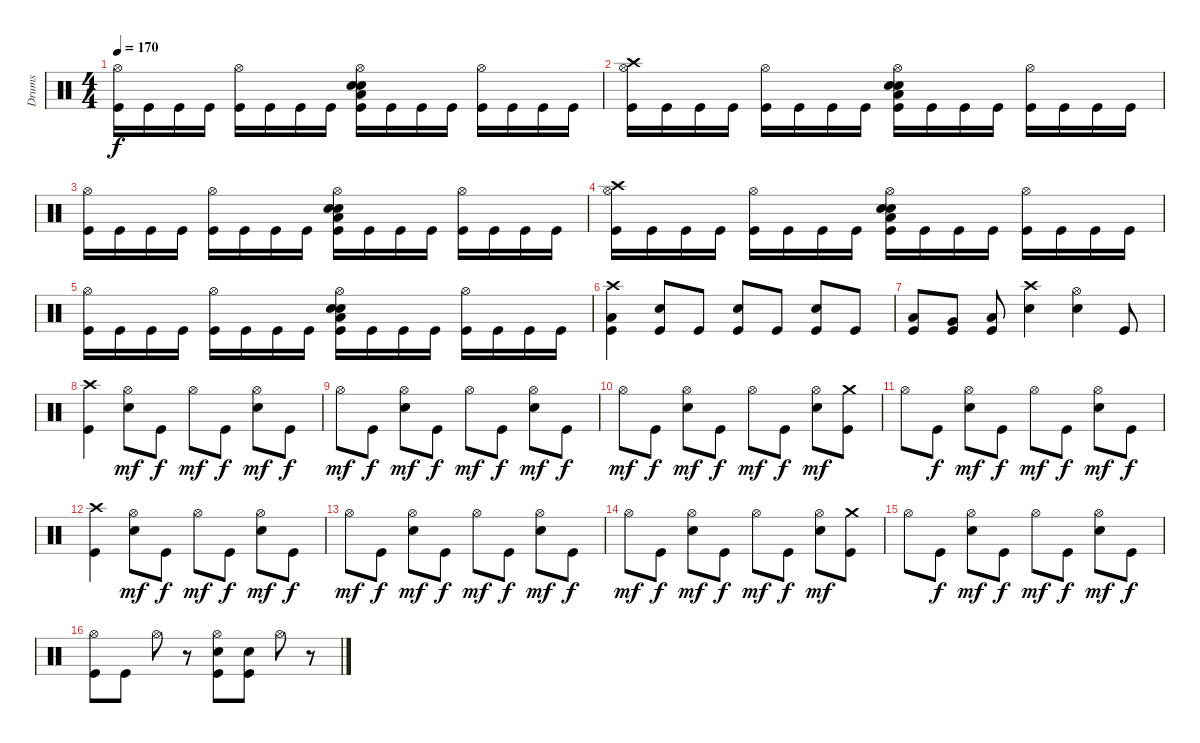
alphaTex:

\track ("Drums" "Drums") {instrument percussion}
\staff {score}
\articulation defaults
\ts (4 4)
\tempo 170
\clef neutral
\ks c
("Hi-Hat (open)" "Kick (hit)").16{dy f} "Kick (hit)".16 "Kick (hit)".16 "Kick (hit)".16 ("Hi-Hat (open)" "Kick (hit)").16 "Kick (hit)".16 "Kick (hit)".16 "Kick (hit)".16 ("Low Floor Tom (hit)" "Hi-Hat (open)" "Electric Snare (hit)" "Electric Snare (hit)" "Kick (hit)").16 "Kick (hit)".16 "Kick (hit)".16 "Kick (hit)".16 ("Hi-Hat (open)" "Kick (hit)").16 "Kick (hit)".16 "Kick (hit)".16 "Kick (hit)".16 |
("Crash high (hit)" "Hi-Hat (open)" "Kick (hit)").16 "Kick (hit)".16 "Kick (hit)".16 "Kick (hit)".16 ("Hi-Hat (open)" "Kick (hit)").16 "Kick (hit)".16 "Kick (hit)".16 "Kick (hit)".16 ("Low Floor Tom (hit)" "Hi-Hat (open)" "Electric Snare (hit)" "Electric Snare (hit)" "Kick (hit)").16 "Kick (hit)".16 "Kick (hit)".16 "Kick (hit)".16 ("Hi-Hat (open)" "Kick (hit)").16 "Kick (hit)".16 "Kick (hit)".16 "Kick (hit)".16 |
("Hi-Hat (open)" "Kick (hit)").16 "Kick (hit)".16 "Kick (hit)".16 "Kick (hit)".16 ("Hi-Hat (open)" "Kick (hit)").16 "Kick (hit)".16 "Kick (hit)".16 "Kick (hit)".16 ("Low Floor Tom (hit)" "Hi-Hat (open)" "Electric Snare (hit)" "Electric Snare (hit)" "Kick (hit)").16 "Kick (hit)".16 "Kick (hit)".16 "Kick (hit)".16 ("Hi-Hat (open)" "Kick (hit)").16 "Kick (hit)".16 "Kick (hit)".16 "Kick (hit)".16 |
("Crash high (hit)" "Hi-Hat (open)" "Kick (hit)").16 "Kick (hit)".16 "Kick (hit)".16 "Kick (hit)".16 ("Hi-Hat (open)" "Kick (hit)").16 "Kick (hit)".16 "Kick (hit)".16 "Kick (hit)".16 ("Low Floor Tom (hit)" "Hi-Hat (open)" "Electric Snare (hit)" "Electric Snare (hit)" "Kick (hit)").16 "Kick (hit)".16 "Kick (hit)".16 "Kick (hit)".16 ("Hi-Hat (open)" "Kick (hit)").16 "Kick (hit)".16 "Kick (hit)".16 "Kick (hit)".16 |
("Hi-Hat (open)" "Kick (hit)").16 "Kick (hit)".16 "Kick (hit)".16 "Kick (hit)".16 ("Hi-Hat (open)" "Kick (hit)").16 "Kick (hit)".16 "Kick (hit)".16 "Kick (hit)".16 ("Low Floor Tom (hit)" "Hi-Hat (open)" "Electric Snare (hit)" "Electric Snare (hit)" "Kick (hit)").16 "Kick (hit)".16 "Kick (hit)".16 "Kick (hit)".16 ("Hi-Hat (open)" "Kick (hit)").16 "Kick (hit)".16 "Kick (hit)".16 "Kick (hit)".16 |
("Low Floor Tom (hit)" "Crash high (hit)" "Kick (hit)").4 ("Electric Snare (hit)" "Kick (hit)").8 "Kick (hit)".8 ("Electric Snare (hit)" "Kick (hit)").8 "Kick (hit)".8 ("Electric Snare (hit)" "Kick (hit)").8 "Kick (hit)".8 |
("Low Floor Tom (hit)" "Kick (hit)").8 ("Very Low Tom (hit)" "Kick (hit)").8 ("Low Tom (hit)" "Kick (hit)").8 ("Crash high (hit)" "Electric Snare (hit)").4 ("Hi-Hat (open)" "Electric Snare (hit)").4 "Kick (hit)".8 |
("Kick (hit)" "Crash high (hit)").4 ("Electric Snare (hit)" "Hi-Hat (open)").8{dy mf} "Kick (hit)".8{dy f} "Hi-Hat (open)".8{dy mf} "Kick (hit)".8{dy f} ("Electric Snare (hit)" "Hi-Hat (open)").8{dy mf} "Kick (hit)".8{dy f} |
"Hi-Hat (open)".8{dy mf} "Kick (hit)".8{dy f} ("Electric Snare (hit)" "Hi-Hat (open)").8{dy mf} "Kick (hit)".8{dy f} "Hi-Hat (open)".8{dy mf} "Kick (hit)".8{dy f} ("Electric Snare (hit)" "Hi-Hat (open)").8{dy mf} "Kick (hit)".8{dy f} |
"Hi-Hat (open)".8{dy mf} "Kick (hit)".8{dy f} ("Electric Snare (hit)" "Hi-Hat (open)").8{dy mf} "Kick (hit)".8{dy f} "Hi-Hat (open)".8{dy mf} "Kick (hit)".8{dy f} ("Electric Snare (hit)" "Hi-Hat (open)").8{dy mf} ("Kick (hit)" "Crash medium (hit)").8 |
"Hi-Hat (open)".8 "Kick (hit)".8{dy f} ("Electric Snare (hit)" "Hi-Hat (open)").8{dy mf} "Kick (hit)".8{dy f} "Hi-Hat (open)".8{dy mf} "Kick (hit)".8{dy f} ("Electric Snare (hit)" "Hi-Hat (open)").8{dy mf} "Kick (hit)".8{dy f} |
("Kick (hit)" "Crash high (hit)").4 ("Electric Snare (hit)" "Hi-Hat (open)").8{dy mf} "Kick (hit)".8{dy f} "Hi-Hat (open)".8{dy mf} "Kick (hit)".8{dy f} ("Electric Snare (hit)" "Hi-Hat (open)").8{dy mf} "Kick (hit)".8{dy f} |
"Hi-Hat (open)".8{dy mf} "Kick (hit)".8{dy f} ("Electric Snare (hit)" "Hi-Hat (open)").8{dy mf} "Kick (hit)".8{dy f} "Hi-Hat (open)".8{dy mf} "Kick (hit)".8{dy f} ("Electric Snare (hit)" "Hi-Hat (open)").8{dy mf} "Kick (hit)".8{dy f} |
"Hi-Hat (open)".8{dy mf} "Kick (hit)".8{dy f} ("Electric Snare (hit)" "Hi-Hat (open)").8{dy mf} "Kick (hit)".8{dy f} "Hi-Hat (open)".8{dy mf} "Kick (hit)".8{dy f} ("Electric Snare (hit)" "Hi-Hat (open)").8{dy mf} ("Kick (hit)" "Crash medium (hit)").8 |
"Hi-Hat (open)".8 "Kick (hit)".8{dy f} ("Electric Snare (hit)" "Hi-Hat (open)").8{dy mf} "Kick (hit)".8{dy f} "Hi-Hat (open)".8{dy mf} "Kick (hit)".8{dy f} ("Electric Snare (hit)" "Hi-Hat (open)").8{dy mf} "Kick (hit)".8{dy f} |
("Hi-Hat (open)" "Kick (hit)").8 "Kick (hit)".8 "Hi-Hat (open)".8 r.8 ("Hi-Hat (open)" "Electric Snare (hit)" "Kick (hit)").8 ("Electric Snare (hit)" "Kick (hit)").8 "Hi-Hat (open)".8 r.8
